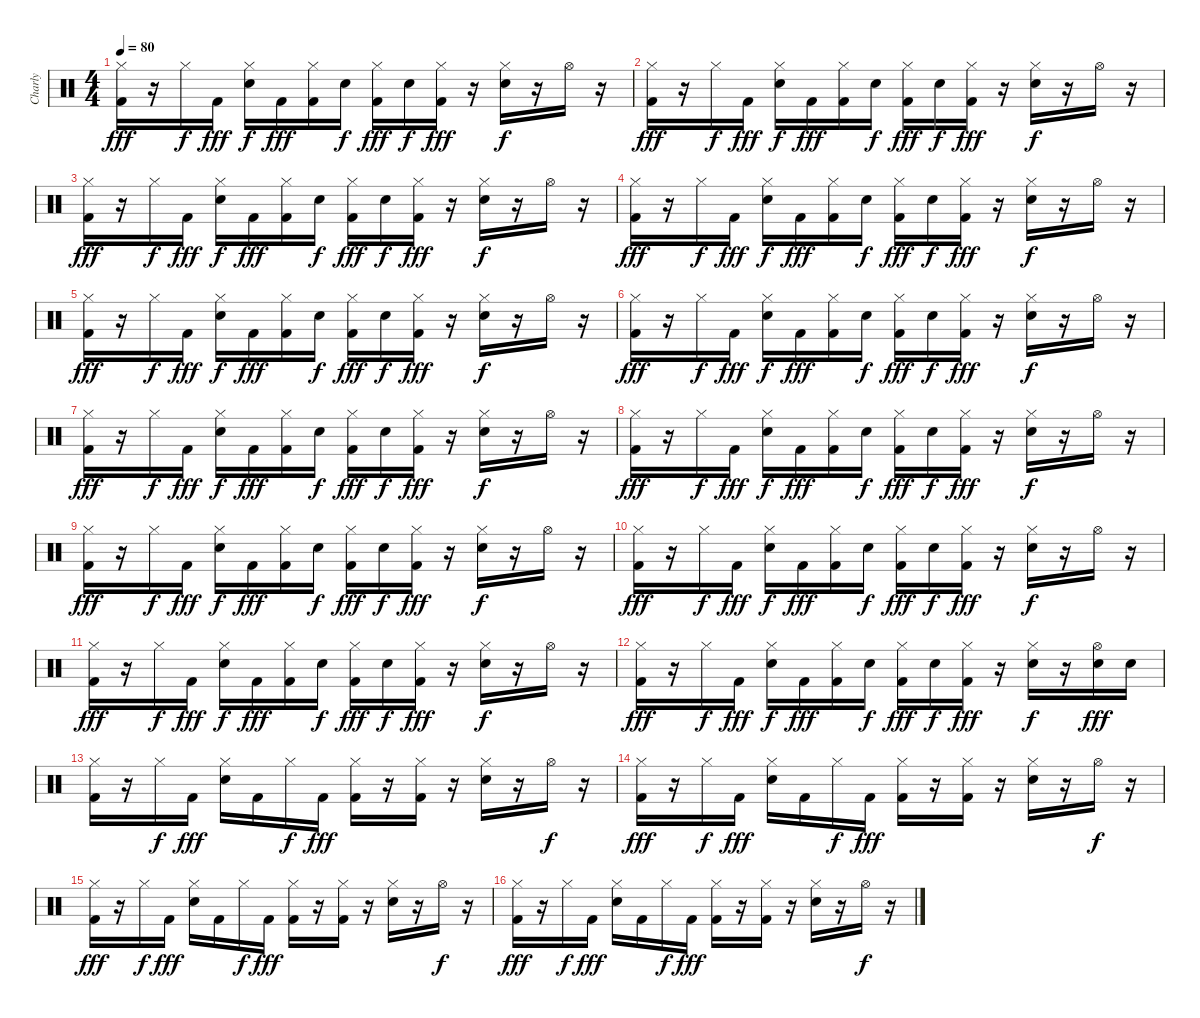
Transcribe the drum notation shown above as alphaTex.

\track ("Charly" "Charly") {instrument percussion}
\staff {score}
\articulation defaults
\ts (4 4)
\tempo 80
\clef neutral
\ks c
("Hi-Hat (closed)" "Kick (hit) 2").16{dy fff} r.16 "Hi-Hat (closed)".16{dy f} "Kick (hit) 2".16{dy fff} ("Hi-Hat (closed)" "Snare (hit) 2").16{dy f} "Kick (hit) 2".16{dy fff} ("Hi-Hat (closed)" "Kick (hit) 2").16 "Snare (hit) 2".16{dy f} ("Hi-Hat (closed)" "Kick (hit) 2").16{dy fff} "Snare (hit) 2".16{dy f} ("Hi-Hat (closed)" "Kick (hit) 2").16{dy fff} r.16 ("Hi-Hat (closed)" "Snare (hit) 2").16{dy f} r.16 "Hi-Hat (open)".16 r.16 |
("Hi-Hat (closed)" "Kick (hit) 2").16{dy fff} r.16 "Hi-Hat (closed)".16{dy f} "Kick (hit) 2".16{dy fff} ("Hi-Hat (closed)" "Snare (hit) 2").16{dy f} "Kick (hit) 2".16{dy fff} ("Hi-Hat (closed)" "Kick (hit) 2").16 "Snare (hit) 2".16{dy f} ("Hi-Hat (closed)" "Kick (hit) 2").16{dy fff} "Snare (hit) 2".16{dy f} ("Hi-Hat (closed)" "Kick (hit) 2").16{dy fff} r.16 ("Hi-Hat (closed)" "Snare (hit) 2").16{dy f} r.16 "Hi-Hat (open)".16 r.16 |
("Hi-Hat (closed)" "Kick (hit) 2").16{dy fff} r.16 "Hi-Hat (closed)".16{dy f} "Kick (hit) 2".16{dy fff} ("Hi-Hat (closed)" "Snare (hit) 2").16{dy f} "Kick (hit) 2".16{dy fff} ("Hi-Hat (closed)" "Kick (hit) 2").16 "Snare (hit) 2".16{dy f} ("Hi-Hat (closed)" "Kick (hit) 2").16{dy fff} "Snare (hit) 2".16{dy f} ("Hi-Hat (closed)" "Kick (hit) 2").16{dy fff} r.16 ("Hi-Hat (closed)" "Snare (hit) 2").16{dy f} r.16 "Hi-Hat (open)".16 r.16 |
("Hi-Hat (closed)" "Kick (hit) 2").16{dy fff} r.16 "Hi-Hat (closed)".16{dy f} "Kick (hit) 2".16{dy fff} ("Hi-Hat (closed)" "Snare (hit) 2").16{dy f} "Kick (hit) 2".16{dy fff} ("Hi-Hat (closed)" "Kick (hit) 2").16 "Snare (hit) 2".16{dy f} ("Hi-Hat (closed)" "Kick (hit) 2").16{dy fff} "Snare (hit) 2".16{dy f} ("Hi-Hat (closed)" "Kick (hit) 2").16{dy fff} r.16 ("Hi-Hat (closed)" "Snare (hit) 2").16{dy f} r.16 "Hi-Hat (open)".16 r.16 |
("Hi-Hat (closed)" "Kick (hit) 2").16{dy fff} r.16 "Hi-Hat (closed)".16{dy f} "Kick (hit) 2".16{dy fff} ("Hi-Hat (closed)" "Snare (hit) 2").16{dy f} "Kick (hit) 2".16{dy fff} ("Hi-Hat (closed)" "Kick (hit) 2").16 "Snare (hit) 2".16{dy f} ("Hi-Hat (closed)" "Kick (hit) 2").16{dy fff} "Snare (hit) 2".16{dy f} ("Hi-Hat (closed)" "Kick (hit) 2").16{dy fff} r.16 ("Hi-Hat (closed)" "Snare (hit) 2").16{dy f} r.16 "Hi-Hat (open)".16 r.16 |
("Hi-Hat (closed)" "Kick (hit) 2").16{dy fff} r.16 "Hi-Hat (closed)".16{dy f} "Kick (hit) 2".16{dy fff} ("Hi-Hat (closed)" "Snare (hit) 2").16{dy f} "Kick (hit) 2".16{dy fff} ("Hi-Hat (closed)" "Kick (hit) 2").16 "Snare (hit) 2".16{dy f} ("Hi-Hat (closed)" "Kick (hit) 2").16{dy fff} "Snare (hit) 2".16{dy f} ("Hi-Hat (closed)" "Kick (hit) 2").16{dy fff} r.16 ("Hi-Hat (closed)" "Snare (hit) 2").16{dy f} r.16 "Hi-Hat (open)".16 r.16 |
("Hi-Hat (closed)" "Kick (hit) 2").16{dy fff} r.16 "Hi-Hat (closed)".16{dy f} "Kick (hit) 2".16{dy fff} ("Hi-Hat (closed)" "Snare (hit) 2").16{dy f} "Kick (hit) 2".16{dy fff} ("Hi-Hat (closed)" "Kick (hit) 2").16 "Snare (hit) 2".16{dy f} ("Hi-Hat (closed)" "Kick (hit) 2").16{dy fff} "Snare (hit) 2".16{dy f} ("Hi-Hat (closed)" "Kick (hit) 2").16{dy fff} r.16 ("Hi-Hat (closed)" "Snare (hit) 2").16{dy f} r.16 "Hi-Hat (open)".16 r.16 |
("Hi-Hat (closed)" "Kick (hit) 2").16{dy fff} r.16 "Hi-Hat (closed)".16{dy f} "Kick (hit) 2".16{dy fff} ("Hi-Hat (closed)" "Snare (hit) 2").16{dy f} "Kick (hit) 2".16{dy fff} ("Hi-Hat (closed)" "Kick (hit) 2").16 "Snare (hit) 2".16{dy f} ("Hi-Hat (closed)" "Kick (hit) 2").16{dy fff} "Snare (hit) 2".16{dy f} ("Hi-Hat (closed)" "Kick (hit) 2").16{dy fff} r.16 ("Hi-Hat (closed)" "Snare (hit) 2").16{dy f} r.16 "Hi-Hat (open)".16 r.16 |
("Hi-Hat (closed)" "Kick (hit) 2").16{dy fff} r.16 "Hi-Hat (closed)".16{dy f} "Kick (hit) 2".16{dy fff} ("Hi-Hat (closed)" "Snare (hit) 2").16{dy f} "Kick (hit) 2".16{dy fff} ("Hi-Hat (closed)" "Kick (hit) 2").16 "Snare (hit) 2".16{dy f} ("Hi-Hat (closed)" "Kick (hit) 2").16{dy fff} "Snare (hit) 2".16{dy f} ("Hi-Hat (closed)" "Kick (hit) 2").16{dy fff} r.16 ("Hi-Hat (closed)" "Snare (hit) 2").16{dy f} r.16 "Hi-Hat (open)".16 r.16 |
("Hi-Hat (closed)" "Kick (hit) 2").16{dy fff} r.16 "Hi-Hat (closed)".16{dy f} "Kick (hit) 2".16{dy fff} ("Hi-Hat (closed)" "Snare (hit) 2").16{dy f} "Kick (hit) 2".16{dy fff} ("Hi-Hat (closed)" "Kick (hit) 2").16 "Snare (hit) 2".16{dy f} ("Hi-Hat (closed)" "Kick (hit) 2").16{dy fff} "Snare (hit) 2".16{dy f} ("Hi-Hat (closed)" "Kick (hit) 2").16{dy fff} r.16 ("Hi-Hat (closed)" "Snare (hit) 2").16{dy f} r.16 "Hi-Hat (open)".16 r.16 |
("Hi-Hat (closed)" "Kick (hit) 2").16{dy fff} r.16 "Hi-Hat (closed)".16{dy f} "Kick (hit) 2".16{dy fff} ("Hi-Hat (closed)" "Snare (hit) 2").16{dy f} "Kick (hit) 2".16{dy fff} ("Hi-Hat (closed)" "Kick (hit) 2").16 "Snare (hit) 2".16{dy f} ("Hi-Hat (closed)" "Kick (hit) 2").16{dy fff} "Snare (hit) 2".16{dy f} ("Hi-Hat (closed)" "Kick (hit) 2").16{dy fff} r.16 ("Hi-Hat (closed)" "Snare (hit) 2").16{dy f} r.16 "Hi-Hat (open)".16 r.16 |
("Hi-Hat (closed)" "Kick (hit) 2").16{dy fff} r.16 "Hi-Hat (closed)".16{dy f} "Kick (hit) 2".16{dy fff} ("Hi-Hat (closed)" "Snare (hit) 2").16{dy f} "Kick (hit) 2".16{dy fff} ("Hi-Hat (closed)" "Kick (hit) 2").16 "Snare (hit) 2".16{dy f} ("Hi-Hat (closed)" "Kick (hit) 2").16{dy fff} "Snare (hit) 2".16{dy f} ("Hi-Hat (closed)" "Kick (hit) 2").16{dy fff} r.16 ("Hi-Hat (closed)" "Snare (hit) 2").16{dy f} r.16 ("Hi-Hat (open)" "Snare (hit) 2").16{dy fff} "Snare (hit) 2".16 |
("Hi-Hat (closed)" "Kick (hit) 2").16 r.16 "Hi-Hat (closed)".16{dy f} "Kick (hit) 2".16{dy fff} ("Hi-Hat (closed)" "Snare (hit) 2").16 "Kick (hit) 2".16 "Hi-Hat (closed)".16{dy f} "Kick (hit) 2".16{dy fff} ("Hi-Hat (closed)" "Kick (hit) 2").16 r.16 ("Hi-Hat (closed)" "Kick (hit) 2").16 r.16 ("Hi-Hat (closed)" "Snare (hit) 2").16 r.16 "Hi-Hat (open)".16{dy f} r.16 |
("Hi-Hat (closed)" "Kick (hit) 2").16{dy fff} r.16 "Hi-Hat (closed)".16{dy f} "Kick (hit) 2".16{dy fff} ("Hi-Hat (closed)" "Snare (hit) 2").16 "Kick (hit) 2".16 "Hi-Hat (closed)".16{dy f} "Kick (hit) 2".16{dy fff} ("Hi-Hat (closed)" "Kick (hit) 2").16 r.16 ("Hi-Hat (closed)" "Kick (hit) 2").16 r.16 ("Hi-Hat (closed)" "Snare (hit) 2").16 r.16 "Hi-Hat (open)".16{dy f} r.16 |
("Hi-Hat (closed)" "Kick (hit) 2").16{dy fff} r.16 "Hi-Hat (closed)".16{dy f} "Kick (hit) 2".16{dy fff} ("Hi-Hat (closed)" "Snare (hit) 2").16 "Kick (hit) 2".16 "Hi-Hat (closed)".16{dy f} "Kick (hit) 2".16{dy fff} ("Hi-Hat (closed)" "Kick (hit) 2").16 r.16 ("Hi-Hat (closed)" "Kick (hit) 2").16 r.16 ("Hi-Hat (closed)" "Snare (hit) 2").16 r.16 "Hi-Hat (open)".16{dy f} r.16 |
("Hi-Hat (closed)" "Kick (hit) 2").16{dy fff} r.16 "Hi-Hat (closed)".16{dy f} "Kick (hit) 2".16{dy fff} ("Hi-Hat (closed)" "Snare (hit) 2").16 "Kick (hit) 2".16 "Hi-Hat (closed)".16{dy f} "Kick (hit) 2".16{dy fff} ("Hi-Hat (closed)" "Kick (hit) 2").16 r.16 ("Hi-Hat (closed)" "Kick (hit) 2").16 r.16 ("Hi-Hat (closed)" "Snare (hit) 2").16 r.16 "Hi-Hat (open)".16{dy f} r.16
